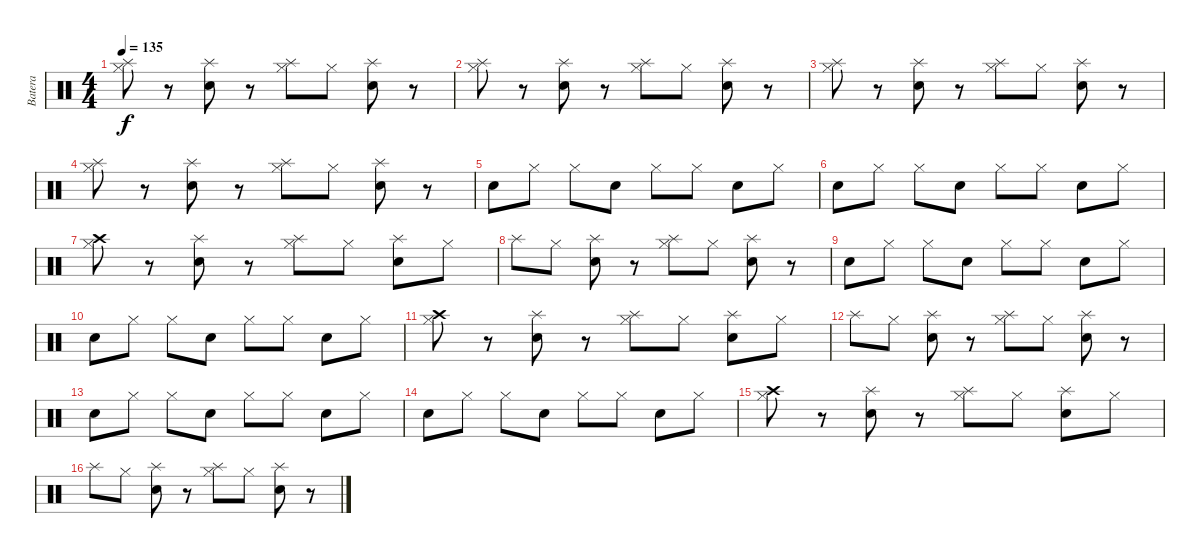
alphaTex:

\track ("Batera" "Batera") {instrument percussion}
\staff {score}
\articulation defaults
\ts (4 4)
\tempo 135
\clef neutral
\ks c
("Splash (hit)" "Hi-Hat (closed)").8{dy f} r.8 ("Splash (hit)" "Electric Snare (hit)").8 r.8 ("Splash (hit)" "Hi-Hat (closed)").8 "Hi-Hat (closed)".8 ("Splash (hit)" "Electric Snare (hit)").8 r.8 |
("Splash (hit)" "Hi-Hat (closed)").8 r.8 ("Splash (hit)" "Electric Snare (hit)").8 r.8 ("Splash (hit)" "Hi-Hat (closed)").8 "Hi-Hat (closed)".8 ("Splash (hit)" "Electric Snare (hit)").8 r.8 |
("Splash (hit)" "Hi-Hat (closed)").8 r.8 ("Splash (hit)" "Electric Snare (hit)").8 r.8 ("Splash (hit)" "Hi-Hat (closed)").8 "Hi-Hat (closed)".8 ("Splash (hit)" "Electric Snare (hit)").8 r.8 |
("Splash (hit)" "Hi-Hat (closed)").8 r.8 ("Splash (hit)" "Electric Snare (hit)").8 r.8 ("Splash (hit)" "Hi-Hat (closed)").8 "Hi-Hat (closed)".8 ("Splash (hit)" "Electric Snare (hit)").8 r.8 |
"Electric Snare (hit)".8 "Hi-Hat (closed)".8 "Hi-Hat (closed)".8 "Electric Snare (hit)".8 "Hi-Hat (closed)".8 "Hi-Hat (closed)".8 "Electric Snare (hit)".8 "Hi-Hat (closed)".8 |
"Electric Snare (hit)".8 "Hi-Hat (closed)".8 "Hi-Hat (closed)".8 "Electric Snare (hit)".8 "Hi-Hat (closed)".8 "Hi-Hat (closed)".8 "Electric Snare (hit)".8 "Hi-Hat (closed)".8 |
("Crash high (hit)" "Hi-Hat (closed)").8 r.8 ("Splash (hit)" "Electric Snare (hit)").8 r.8 ("Splash (hit)" "Hi-Hat (closed)").8 "Hi-Hat (closed)".8 ("Splash (hit)" "Electric Snare (hit)").8 "Hi-Hat (closed)".8 |
"Splash (hit)".8 "Hi-Hat (closed)".8 ("Splash (hit)" "Electric Snare (hit)").8 r.8 ("Splash (hit)" "Hi-Hat (closed)").8 "Hi-Hat (closed)".8 ("Splash (hit)" "Electric Snare (hit)").8 r.8 |
"Electric Snare (hit)".8 "Hi-Hat (closed)".8 "Hi-Hat (closed)".8 "Electric Snare (hit)".8 "Hi-Hat (closed)".8 "Hi-Hat (closed)".8 "Electric Snare (hit)".8 "Hi-Hat (closed)".8 |
"Electric Snare (hit)".8 "Hi-Hat (closed)".8 "Hi-Hat (closed)".8 "Electric Snare (hit)".8 "Hi-Hat (closed)".8 "Hi-Hat (closed)".8 "Electric Snare (hit)".8 "Hi-Hat (closed)".8 |
("Crash high (hit)" "Hi-Hat (closed)").8 r.8 ("Splash (hit)" "Electric Snare (hit)").8 r.8 ("Splash (hit)" "Hi-Hat (closed)").8 "Hi-Hat (closed)".8 ("Splash (hit)" "Electric Snare (hit)").8 "Hi-Hat (closed)".8 |
"Splash (hit)".8 "Hi-Hat (closed)".8 ("Splash (hit)" "Electric Snare (hit)").8 r.8 ("Splash (hit)" "Hi-Hat (closed)").8 "Hi-Hat (closed)".8 ("Splash (hit)" "Electric Snare (hit)").8 r.8 |
"Electric Snare (hit)".8 "Hi-Hat (closed)".8 "Hi-Hat (closed)".8 "Electric Snare (hit)".8 "Hi-Hat (closed)".8 "Hi-Hat (closed)".8 "Electric Snare (hit)".8 "Hi-Hat (closed)".8 |
"Electric Snare (hit)".8 "Hi-Hat (closed)".8 "Hi-Hat (closed)".8 "Electric Snare (hit)".8 "Hi-Hat (closed)".8 "Hi-Hat (closed)".8 "Electric Snare (hit)".8 "Hi-Hat (closed)".8 |
("Crash high (hit)" "Hi-Hat (closed)").8 r.8 ("Splash (hit)" "Electric Snare (hit)").8 r.8 ("Splash (hit)" "Hi-Hat (closed)").8 "Hi-Hat (closed)".8 ("Splash (hit)" "Electric Snare (hit)").8 "Hi-Hat (closed)".8 |
"Splash (hit)".8 "Hi-Hat (closed)".8 ("Splash (hit)" "Electric Snare (hit)").8 r.8 ("Splash (hit)" "Hi-Hat (closed)").8 "Hi-Hat (closed)".8 ("Splash (hit)" "Electric Snare (hit)").8 r.8
